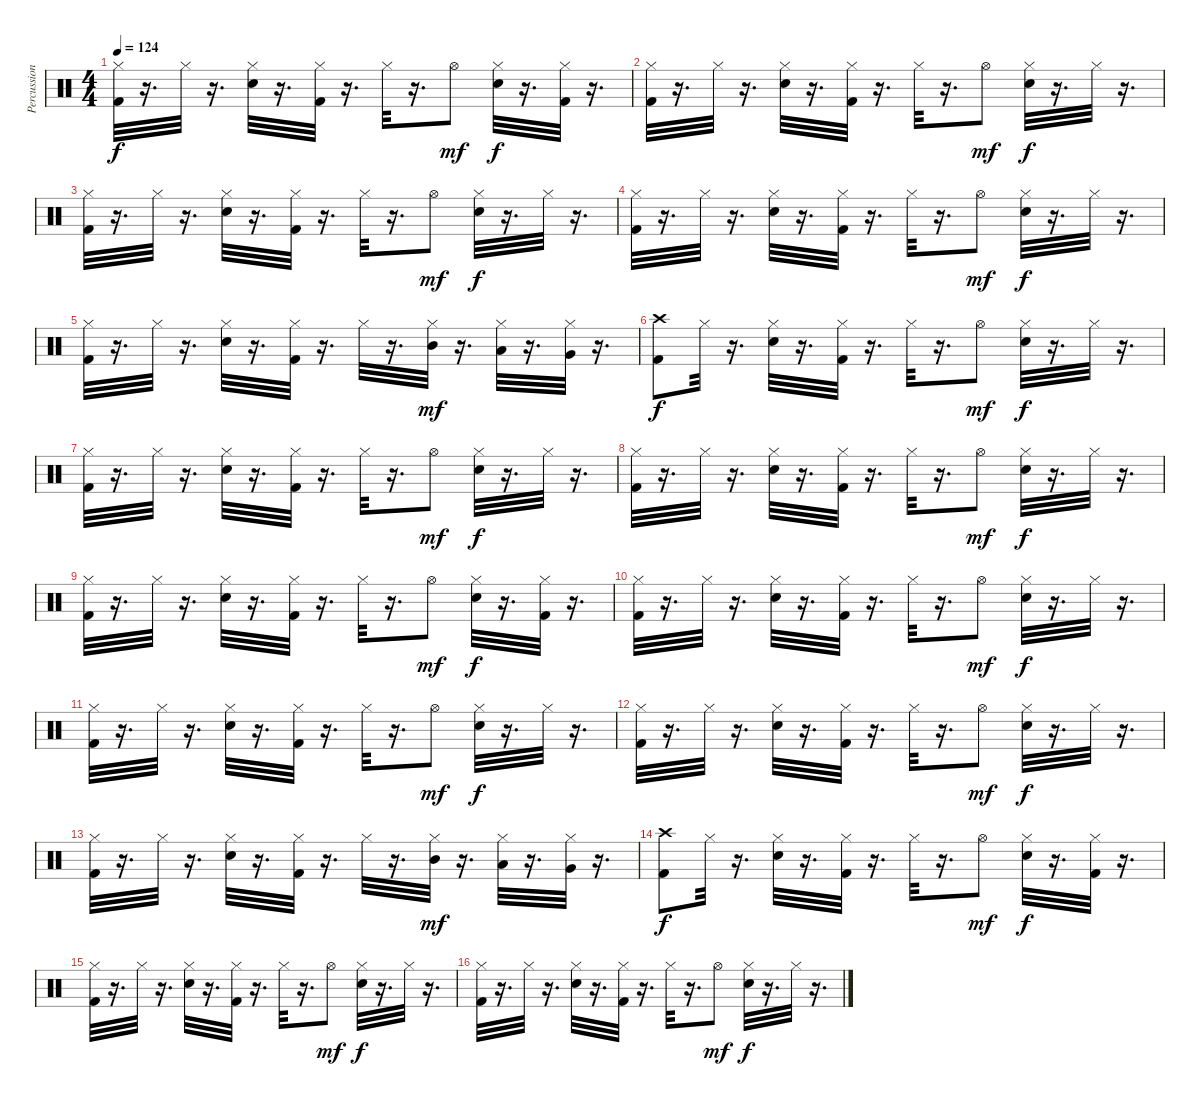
\track ("Percussions" "Percussion") {instrument percussion}
\staff {score}
\articulation defaults
\ts (4 4)
\tempo 124
\clef neutral
\ks c
("Kick (hit) 2" "Hi-Hat (closed)").32{dy f} r.16{d} "Hi-Hat (closed)".32 r.16{d} ("Snare (hit) 2" "Hi-Hat (closed)").32 r.16{d} ("Kick (hit) 2" "Hi-Hat (closed)").32 r.16{d} "Hi-Hat (closed)".32 r.16{d} "Hi-Hat (open)".8{dy mf} ("Snare (hit) 2" "Hi-Hat (closed)").32{dy f} r.16{d} ("Kick (hit) 2" "Hi-Hat (closed)").32 r.16{d} |
("Kick (hit) 2" "Hi-Hat (closed)").32 r.16{d} "Hi-Hat (closed)".32 r.16{d} ("Snare (hit) 2" "Hi-Hat (closed)").32 r.16{d} ("Kick (hit) 2" "Hi-Hat (closed)").32 r.16{d} "Hi-Hat (closed)".32 r.16{d} "Hi-Hat (open)".8{dy mf} ("Snare (hit) 2" "Hi-Hat (closed)").32{dy f} r.16{d} "Hi-Hat (closed)".32 r.16{d} |
("Kick (hit) 2" "Hi-Hat (closed)").32 r.16{d} "Hi-Hat (closed)".32 r.16{d} ("Snare (hit) 2" "Hi-Hat (closed)").32 r.16{d} ("Kick (hit) 2" "Hi-Hat (closed)").32 r.16{d} "Hi-Hat (closed)".32 r.16{d} "Hi-Hat (open)".8{dy mf} ("Snare (hit) 2" "Hi-Hat (closed)").32{dy f} r.16{d} "Hi-Hat (closed)".32 r.16{d} |
("Kick (hit) 2" "Hi-Hat (closed)").32 r.16{d} "Hi-Hat (closed)".32 r.16{d} ("Snare (hit) 2" "Hi-Hat (closed)").32 r.16{d} ("Kick (hit) 2" "Hi-Hat (closed)").32 r.16{d} "Hi-Hat (closed)".32 r.16{d} "Hi-Hat (open)".8{dy mf} ("Snare (hit) 2" "Hi-Hat (closed)").32{dy f} r.16{d} "Hi-Hat (closed)".32 r.16{d} |
("Kick (hit) 2" "Hi-Hat (closed)").32 r.16{d} "Hi-Hat (closed)".32 r.16{d} ("Snare (hit) 2" "Hi-Hat (closed)").32 r.16{d} ("Kick (hit) 2" "Hi-Hat (closed)").32 r.16{d} "Hi-Hat (closed)".32 r.16{d} ("Hi-Hat (closed)" "Mid Tom (hit)").32{dy mf} r.16{d} ("Hi-Hat (closed)" "Low Tom (hit)").32 r.16{d} ("Hi-Hat (closed)" "Very Low Tom (hit)").32 r.16{d} |
("Kick (hit) 2" "Crash high (hit)").8{dy f} "Hi-Hat (closed)".32 r.16{d} ("Snare (hit) 2" "Hi-Hat (closed)").32 r.16{d} ("Kick (hit) 2" "Hi-Hat (closed)").32 r.16{d} "Hi-Hat (closed)".32 r.16{d} "Hi-Hat (open)".8{dy mf} ("Snare (hit) 2" "Hi-Hat (closed)").32{dy f} r.16{d} "Hi-Hat (closed)".32 r.16{d} |
("Kick (hit) 2" "Hi-Hat (closed)").32 r.16{d} "Hi-Hat (closed)".32 r.16{d} ("Snare (hit) 2" "Hi-Hat (closed)").32 r.16{d} ("Kick (hit) 2" "Hi-Hat (closed)").32 r.16{d} "Hi-Hat (closed)".32 r.16{d} "Hi-Hat (open)".8{dy mf} ("Snare (hit) 2" "Hi-Hat (closed)").32{dy f} r.16{d} "Hi-Hat (closed)".32 r.16{d} |
("Kick (hit) 2" "Hi-Hat (closed)").32 r.16{d} "Hi-Hat (closed)".32 r.16{d} ("Snare (hit) 2" "Hi-Hat (closed)").32 r.16{d} ("Kick (hit) 2" "Hi-Hat (closed)").32 r.16{d} "Hi-Hat (closed)".32 r.16{d} "Hi-Hat (open)".8{dy mf} ("Snare (hit) 2" "Hi-Hat (closed)").32{dy f} r.16{d} "Hi-Hat (closed)".32 r.16{d} |
("Kick (hit) 2" "Hi-Hat (closed)").32 r.16{d} "Hi-Hat (closed)".32 r.16{d} ("Snare (hit) 2" "Hi-Hat (closed)").32 r.16{d} ("Kick (hit) 2" "Hi-Hat (closed)").32 r.16{d} "Hi-Hat (closed)".32 r.16{d} "Hi-Hat (open)".8{dy mf} ("Snare (hit) 2" "Hi-Hat (closed)").32{dy f} r.16{d} ("Kick (hit) 2" "Hi-Hat (closed)").32 r.16{d} |
("Kick (hit) 2" "Hi-Hat (closed)").32 r.16{d} "Hi-Hat (closed)".32 r.16{d} ("Snare (hit) 2" "Hi-Hat (closed)").32 r.16{d} ("Kick (hit) 2" "Hi-Hat (closed)").32 r.16{d} "Hi-Hat (closed)".32 r.16{d} "Hi-Hat (open)".8{dy mf} ("Snare (hit) 2" "Hi-Hat (closed)").32{dy f} r.16{d} "Hi-Hat (closed)".32 r.16{d} |
("Kick (hit) 2" "Hi-Hat (closed)").32 r.16{d} "Hi-Hat (closed)".32 r.16{d} ("Snare (hit) 2" "Hi-Hat (closed)").32 r.16{d} ("Kick (hit) 2" "Hi-Hat (closed)").32 r.16{d} "Hi-Hat (closed)".32 r.16{d} "Hi-Hat (open)".8{dy mf} ("Snare (hit) 2" "Hi-Hat (closed)").32{dy f} r.16{d} "Hi-Hat (closed)".32 r.16{d} |
("Kick (hit) 2" "Hi-Hat (closed)").32 r.16{d} "Hi-Hat (closed)".32 r.16{d} ("Snare (hit) 2" "Hi-Hat (closed)").32 r.16{d} ("Kick (hit) 2" "Hi-Hat (closed)").32 r.16{d} "Hi-Hat (closed)".32 r.16{d} "Hi-Hat (open)".8{dy mf} ("Snare (hit) 2" "Hi-Hat (closed)").32{dy f} r.16{d} "Hi-Hat (closed)".32 r.16{d} |
("Kick (hit) 2" "Hi-Hat (closed)").32 r.16{d} "Hi-Hat (closed)".32 r.16{d} ("Snare (hit) 2" "Hi-Hat (closed)").32 r.16{d} ("Kick (hit) 2" "Hi-Hat (closed)").32 r.16{d} "Hi-Hat (closed)".32 r.16{d} ("Hi-Hat (closed)" "Mid Tom (hit)").32{dy mf} r.16{d} ("Hi-Hat (closed)" "Low Tom (hit)").32 r.16{d} ("Hi-Hat (closed)" "Very Low Tom (hit)").32 r.16{d} |
("Kick (hit) 2" "Crash high (hit)").8{dy f} "Hi-Hat (closed)".32 r.16{d} ("Snare (hit) 2" "Hi-Hat (closed)").32 r.16{d} ("Kick (hit) 2" "Hi-Hat (closed)").32 r.16{d} "Hi-Hat (closed)".32 r.16{d} "Hi-Hat (open)".8{dy mf} ("Snare (hit) 2" "Hi-Hat (closed)").32{dy f} r.16{d} ("Kick (hit) 2" "Hi-Hat (closed)").32 r.16{d} |
("Kick (hit) 2" "Hi-Hat (closed)").32 r.16{d} "Hi-Hat (closed)".32 r.16{d} ("Snare (hit) 2" "Hi-Hat (closed)").32 r.16{d} ("Kick (hit) 2" "Hi-Hat (closed)").32 r.16{d} "Hi-Hat (closed)".32 r.16{d} "Hi-Hat (open)".8{dy mf} ("Snare (hit) 2" "Hi-Hat (closed)").32{dy f} r.16{d} "Hi-Hat (closed)".32 r.16{d} |
("Kick (hit) 2" "Hi-Hat (closed)").32 r.16{d} "Hi-Hat (closed)".32 r.16{d} ("Snare (hit) 2" "Hi-Hat (closed)").32 r.16{d} ("Kick (hit) 2" "Hi-Hat (closed)").32 r.16{d} "Hi-Hat (closed)".32 r.16{d} "Hi-Hat (open)".8{dy mf} ("Snare (hit) 2" "Hi-Hat (closed)").32{dy f} r.16{d} "Hi-Hat (closed)".32 r.16{d}
